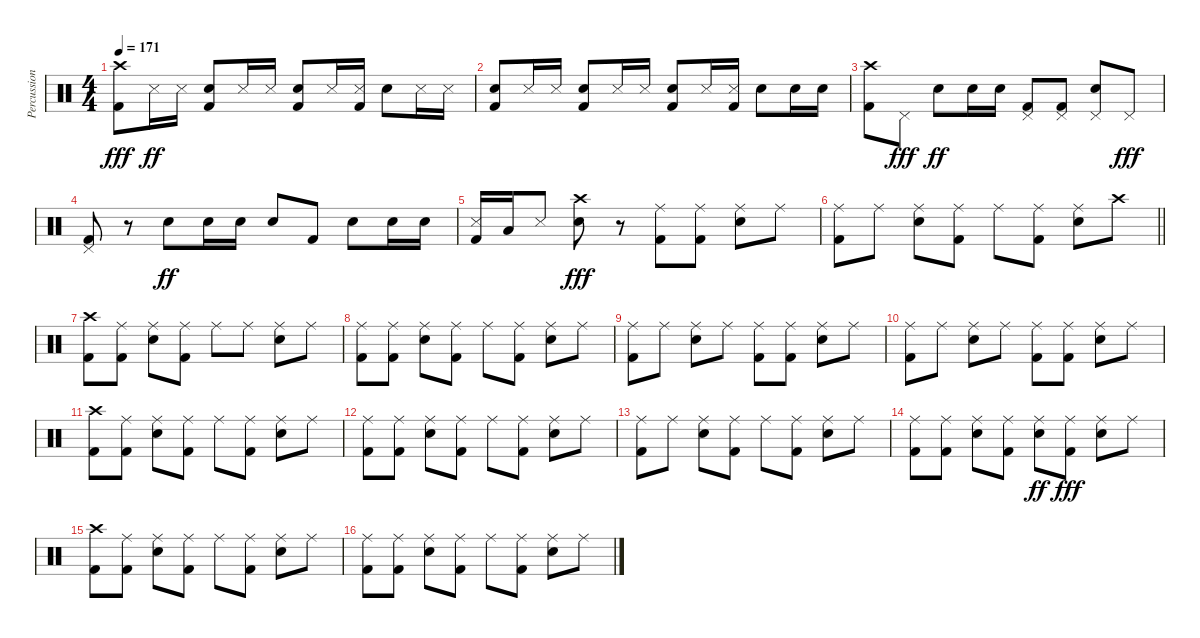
\track ("Percussion" "Percussion") {instrument percussion}
\staff {score}
\articulation defaults
\ts (4 4)
\tempo 171
\clef neutral
\ks c
("Kick (hit) 2" "Crash high (hit)").8{dy fff} "Metronome (hit)".16{dy ff} "Metronome (hit)".16 ("Kick (hit) 2" "Snare (hit) 2").8 "Metronome (hit)".16 "Metronome (hit)".16 ("Kick (hit) 2" "Snare (hit) 2").8 "Metronome (hit)".16 ("Kick (hit) 2" "Metronome (hit)").16 "Snare (hit) 2".8 "Metronome (hit)".16 "Metronome (hit)".16 |
("Kick (hit) 2" "Snare (hit) 2").8 "Metronome (hit)".16 "Metronome (hit)".16 ("Kick (hit) 2" "Snare (hit) 2").8 "Metronome (hit)".16 "Metronome (hit)".16 ("Kick (hit) 2" "Snare (hit) 2").8 "Metronome (hit)".16 ("Kick (hit) 2" "Metronome (hit)").16 "Snare (hit) 2".8 "Snare (hit) 2".16 "Snare (hit) 2".16 |
("Crash high (hit)" "Kick (hit) 2").8 "Pedal Hi-Hat (hit)".8{dy fff} "Snare (hit) 2".8{dy ff} "Snare (hit) 2".16 "Snare (hit) 2".16 ("Pedal Hi-Hat (hit)" "Kick (hit) 2").8 ("Pedal Hi-Hat (hit)" "Kick (hit) 2").8 ("Pedal Hi-Hat (hit)" "Snare (hit) 2").8 "Pedal Hi-Hat (hit)".8{dy fff} |
("Kick (hit) 2" "Pedal Hi-Hat (hit)").8 r.8 "Snare (hit) 2".8{dy ff} "Snare (hit) 2".16 "Snare (hit) 2".16 "Snare (hit) 2".8 "Kick (hit) 2".8 "Snare (hit) 2".8 "Snare (hit) 2".16 "Snare (hit) 2".16 |
("Kick (hit) 2" "Metronome (hit)").16 "Low Tom (hit)".16 "Metronome (hit)".8 ("Snare (hit) 2" "Crash high (hit)").8{dy fff} r.8 ("Kick (hit) 2" "Ride (middle)").8 ("Kick (hit) 2" "Ride (middle)").8 ("Snare (hit) 2" "Ride (middle)").8 "Ride (middle)".8 |
\barLineRight lightlight
("Kick (hit) 2" "Ride (middle)").8 "Ride (middle)".8 ("Snare (hit) 2" "Ride (middle)").8 ("Kick (hit) 2" "Ride (middle)").8 "Ride (middle)".8 ("Kick (hit) 2" "Ride (middle)").8 ("Snare (hit) 2" "Ride (middle)").8 "Crash high (hit)".8 |
("Kick (hit) 2" "Crash high (hit)").8 ("Kick (hit) 2" "Ride (middle)").8 ("Snare (hit) 2" "Ride (middle)").8 ("Kick (hit) 2" "Ride (middle)").8 "Ride (middle)".8 "Ride (middle)".8 ("Snare (hit) 2" "Ride (middle)").8 "Ride (middle)".8 |
("Kick (hit) 2" "Ride (middle)").8 ("Kick (hit) 2" "Ride (middle)").8 ("Snare (hit) 2" "Ride (middle)").8 ("Kick (hit) 2" "Ride (middle)").8 "Ride (middle)".8 ("Kick (hit) 2" "Ride (middle)").8 ("Snare (hit) 2" "Ride (middle)").8 "Ride (middle)".8 |
("Kick (hit) 2" "Ride (middle)").8 "Ride (middle)".8 ("Snare (hit) 2" "Ride (middle)").8 "Ride (middle)".8 ("Kick (hit) 2" "Ride (middle)").8 ("Kick (hit) 2" "Ride (middle)").8 ("Snare (hit) 2" "Ride (middle)").8 "Ride (middle)".8 |
("Kick (hit) 2" "Ride (middle)").8 "Ride (middle)".8 ("Snare (hit) 2" "Ride (middle)").8 "Ride (middle)".8 ("Kick (hit) 2" "Ride (middle)").8 ("Kick (hit) 2" "Ride (middle)").8 ("Snare (hit) 2" "Ride (middle)").8 "Ride (middle)".8 |
("Kick (hit) 2" "Crash high (hit)").8 ("Kick (hit) 2" "Ride (middle)").8 ("Snare (hit) 2" "Ride (middle)").8 ("Kick (hit) 2" "Ride (middle)").8 "Ride (middle)".8 ("Kick (hit) 2" "Ride (middle)").8 ("Snare (hit) 2" "Ride (middle)").8 "Ride (middle)".8 |
("Kick (hit) 2" "Ride (middle)").8 ("Kick (hit) 2" "Ride (middle)").8 ("Snare (hit) 2" "Ride (middle)").8 ("Kick (hit) 2" "Ride (middle)").8 "Ride (middle)".8 ("Kick (hit) 2" "Ride (middle)").8 ("Snare (hit) 2" "Ride (middle)").8 "Ride (middle)".8 |
("Kick (hit) 2" "Ride (middle)").8 "Ride (middle)".8 ("Snare (hit) 2" "Ride (middle)").8 ("Kick (hit) 2" "Ride (middle)").8 "Ride (middle)".8 ("Kick (hit) 2" "Ride (middle)").8 ("Snare (hit) 2" "Ride (middle)").8 "Ride (middle)".8 |
("Kick (hit) 2" "Ride (middle)").8 ("Kick (hit) 2" "Ride (middle)").8 ("Snare (hit) 2" "Ride (middle)").8 ("Kick (hit) 2" "Ride (middle)").8 ("Ride (middle)" "Snare (hit) 2").8{dy ff} ("Kick (hit) 2" "Ride (middle)").8{dy fff} ("Snare (hit) 2" "Ride (middle)").8 "Ride (middle)".8 |
("Kick (hit) 2" "Crash high (hit)").8 ("Kick (hit) 2" "Ride (middle)").8 ("Snare (hit) 2" "Ride (middle)").8 ("Kick (hit) 2" "Ride (middle)").8 "Ride (middle)".8 ("Kick (hit) 2" "Ride (middle)").8 ("Snare (hit) 2" "Ride (middle)").8 "Ride (middle)".8 |
("Kick (hit) 2" "Ride (middle)").8 ("Kick (hit) 2" "Ride (middle)").8 ("Snare (hit) 2" "Ride (middle)").8 ("Kick (hit) 2" "Ride (middle)").8 "Ride (middle)".8 ("Kick (hit) 2" "Ride (middle)").8 ("Snare (hit) 2" "Ride (middle)").8 "Ride (middle)".8
